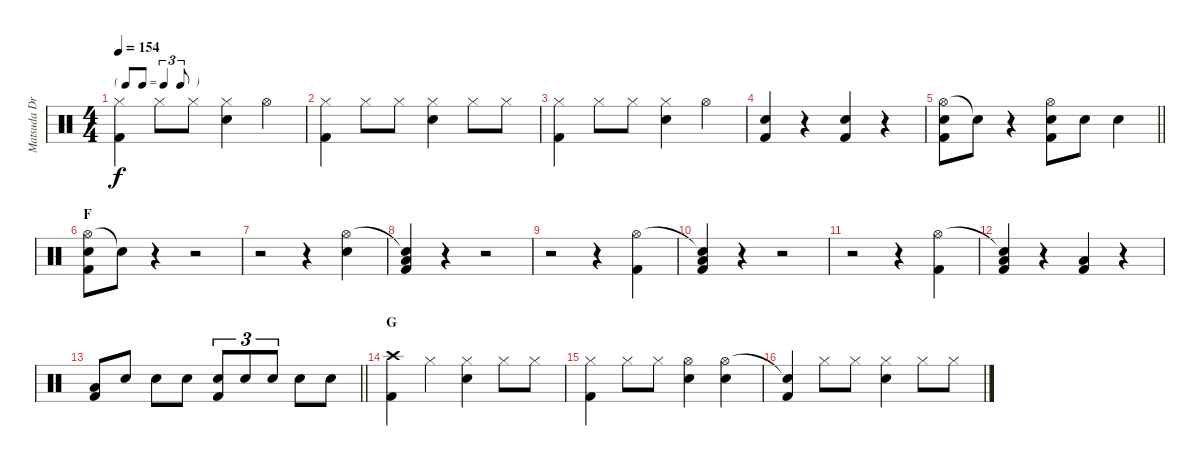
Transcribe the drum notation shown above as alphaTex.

\track ("Matsuda Drums" "Matsuda Dr") {instrument percussion}
\staff {score}
\articulation defaults
\ts (4 4)
\tf triplet8th
\tempo 154
\clef neutral
\ks c
("Hi-Hat (closed)" "Kick (hit) 2").4{dy f} "Hi-Hat (closed)".8 "Hi-Hat (closed)".8 ("Hi-Hat (closed)" "Snare (hit) 2").4 "Hi-Hat (open)".4 |
("Hi-Hat (closed)" "Kick (hit) 2").4 "Hi-Hat (closed)".8 "Hi-Hat (closed)".8 ("Hi-Hat (closed)" "Snare (hit) 2").4 "Hi-Hat (closed)".8 "Hi-Hat (closed)".8 |
("Hi-Hat (closed)" "Kick (hit) 2").4 "Hi-Hat (closed)".8 "Hi-Hat (closed)".8 ("Hi-Hat (closed)" "Snare (hit) 2").4 "Hi-Hat (open)".4 |
("Snare (hit) 2" "Kick (hit) 2").4 r.4 ("Snare (hit) 2" "Kick (hit) 2").4 r.4 |
\barLineRight lightlight
("Hi-Hat (open)" "Snare (hit) 2" "Kick (hit) 2").8 "Snare (hit)"{t}.8 r.4 ("Hi-Hat (open)" "Snare (hit) 2" "Kick (hit) 2").8 "Snare (hit) 2".8 "Snare (hit) 2".4 |
\section ("" "F")
("Hi-Hat (open)" "Snare (hit) 2" "Kick (hit) 2").8 "Snare (hit)"{t}.8 r.4 r.2 |
r.2 r.4 ("Hi-Hat (open)" "Snare (hit) 2").4 |
("Snare (hit)"{t} "Low Floor Tom (hit)" "Kick (hit) 2").4 r.4 r.2 |
r.2 r.4 ("Hi-Hat (open)" "Kick (hit) 2").4 |
("Snare (hit)"{t} "Low Floor Tom (hit)" "Kick (hit) 2").4 r.4 r.2 |
r.2 r.4 ("Hi-Hat (open)" "Kick (hit) 2").4 |
("Snare (hit)"{t} "Low Floor Tom (hit)" "Kick (hit) 2").4 r.4 ("Low Floor Tom (hit)" "Kick (hit) 2").4 r.4 |
\barLineRight lightlight
("Low Floor Tom (hit)" "Kick (hit) 2").8 "Snare (hit) 2".8 "Snare (hit) 2".8 "Snare (hit) 2".8 ("Snare (hit) 2" "Kick (hit) 2").8{tu (3 2)} "Snare (hit) 2".8{tu (3 2)} "Snare (hit) 2".8{tu (3 2)} "Snare (hit) 2".8 "Snare (hit) 2".8 |
\section ("" "G")
("Crash high (hit)" "Kick (hit) 2").4 "Hi-Hat (closed)".4 ("Hi-Hat (closed)" "Snare (hit) 2").4 "Hi-Hat (closed)".8 "Hi-Hat (closed)".8 |
("Hi-Hat (closed)" "Kick (hit) 2").4 "Hi-Hat (closed)".8 "Hi-Hat (closed)".8 ("Hi-Hat (open)" "Snare (hit) 2").4 ("Hi-Hat (open)" "Snare (hit) 2").4 |
("Snare (hit)"{t} "Kick (hit) 2").4 "Hi-Hat (closed)".8 "Hi-Hat (closed)".8 ("Hi-Hat (closed)" "Snare (hit) 2").4 "Hi-Hat (closed)".8 "Hi-Hat (closed)".8
